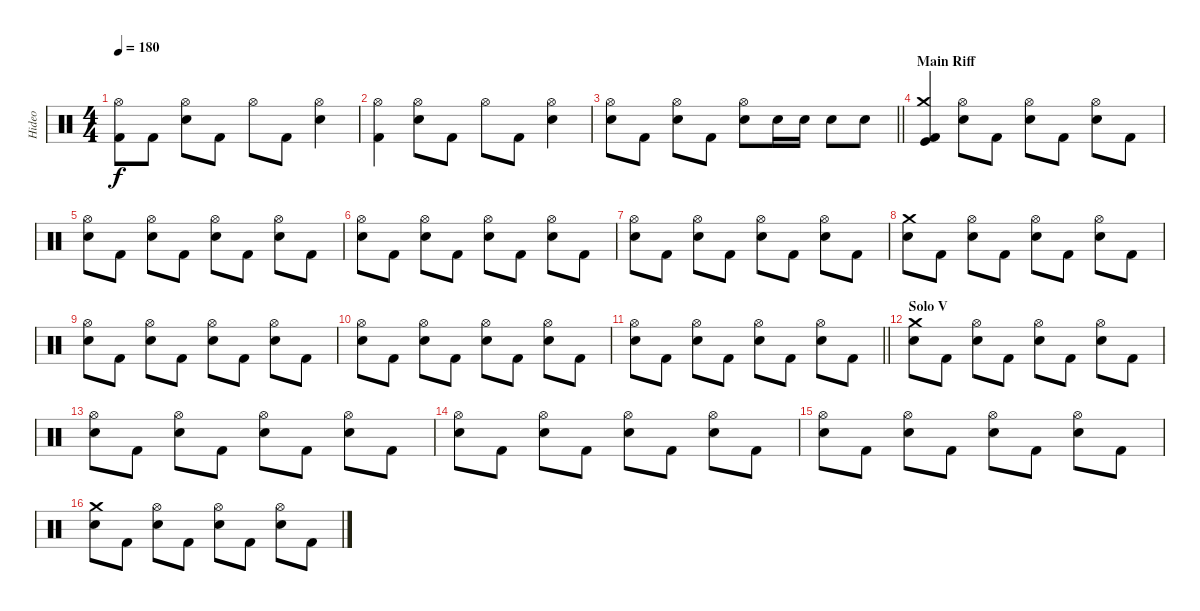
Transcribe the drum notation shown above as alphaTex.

\track ("Hideo" "Hideo") {instrument percussion}
\staff {score}
\articulation defaults
\ts (4 4)
\tempo 180
\clef neutral
\ks c
("Hi-Hat (open)" "Kick (hit) 2").8{dy f} "Kick (hit) 2".8 ("Hi-Hat (open)" "Electric Snare (hit)").8 "Kick (hit) 2".8 "Hi-Hat (open)".8 "Kick (hit) 2".8 ("Hi-Hat (open)" "Electric Snare (hit)").4 |
("Hi-Hat (open)" "Kick (hit) 2").4 ("Hi-Hat (open)" "Electric Snare (hit)").8 "Kick (hit) 2".8 "Hi-Hat (open)".8 "Kick (hit) 2".8 ("Hi-Hat (open)" "Electric Snare (hit)").4 |
\barLineRight lightlight
("Hi-Hat (open)" "Electric Snare (hit)").8 "Kick (hit) 2".8 ("Hi-Hat (open)" "Electric Snare (hit)").8 "Kick (hit) 2".8 ("Hi-Hat (open)" "Electric Snare (hit)").8 "Electric Snare (hit)".16 "Electric Snare (hit)".16 "Electric Snare (hit)".8 "Electric Snare (hit)".8 |
\section ("" "Main Riff")
("Crash medium (hit)" "Kick (hit) 2" "Kick (hit)").4 ("Hi-Hat (open)" "Electric Snare (hit)").8 "Kick (hit) 2".8 ("Hi-Hat (open)" "Electric Snare (hit)").8 "Kick (hit) 2".8 ("Hi-Hat (open)" "Electric Snare (hit)").8 "Kick (hit) 2".8 |
("Hi-Hat (open)" "Electric Snare (hit)").8 "Kick (hit) 2".8 ("Hi-Hat (open)" "Electric Snare (hit)").8 "Kick (hit) 2".8 ("Hi-Hat (open)" "Electric Snare (hit)").8 "Kick (hit) 2".8 ("Hi-Hat (open)" "Electric Snare (hit)").8 "Kick (hit) 2".8 |
("Hi-Hat (open)" "Electric Snare (hit)").8 "Kick (hit) 2".8 ("Hi-Hat (open)" "Electric Snare (hit)").8 "Kick (hit) 2".8 ("Hi-Hat (open)" "Electric Snare (hit)").8 "Kick (hit) 2".8 ("Hi-Hat (open)" "Electric Snare (hit)").8 "Kick (hit) 2".8 |
("Hi-Hat (open)" "Electric Snare (hit)").8 "Kick (hit) 2".8 ("Hi-Hat (open)" "Electric Snare (hit)").8 "Kick (hit) 2".8 ("Hi-Hat (open)" "Electric Snare (hit)").8 "Kick (hit) 2".8 ("Hi-Hat (open)" "Electric Snare (hit)").8 "Kick (hit) 2".8 |
("Crash medium (hit)" "Electric Snare (hit)").8 "Kick (hit) 2".8 ("Hi-Hat (open)" "Electric Snare (hit)").8 "Kick (hit) 2".8 ("Hi-Hat (open)" "Electric Snare (hit)").8 "Kick (hit) 2".8 ("Hi-Hat (open)" "Electric Snare (hit)").8 "Kick (hit) 2".8 |
("Hi-Hat (open)" "Electric Snare (hit)").8 "Kick (hit) 2".8 ("Hi-Hat (open)" "Electric Snare (hit)").8 "Kick (hit) 2".8 ("Hi-Hat (open)" "Electric Snare (hit)").8 "Kick (hit) 2".8 ("Hi-Hat (open)" "Electric Snare (hit)").8 "Kick (hit) 2".8 |
("Hi-Hat (open)" "Electric Snare (hit)").8 "Kick (hit) 2".8 ("Hi-Hat (open)" "Electric Snare (hit)").8 "Kick (hit) 2".8 ("Hi-Hat (open)" "Electric Snare (hit)").8 "Kick (hit) 2".8 ("Hi-Hat (open)" "Electric Snare (hit)").8 "Kick (hit) 2".8 |
\barLineRight lightlight
("Hi-Hat (open)" "Electric Snare (hit)").8 "Kick (hit) 2".8 ("Hi-Hat (open)" "Electric Snare (hit)").8 "Kick (hit) 2".8 ("Hi-Hat (open)" "Electric Snare (hit)").8 "Kick (hit) 2".8 ("Hi-Hat (open)" "Electric Snare (hit)").8 "Kick (hit) 2".8 |
\section ("" "Solo V")
("Crash medium (hit)" "Electric Snare (hit)").8 "Kick (hit) 2".8 ("Hi-Hat (open)" "Electric Snare (hit)").8 "Kick (hit) 2".8 ("Hi-Hat (open)" "Electric Snare (hit)").8 "Kick (hit) 2".8 ("Hi-Hat (open)" "Electric Snare (hit)").8 "Kick (hit) 2".8 |
("Hi-Hat (open)" "Electric Snare (hit)").8 "Kick (hit) 2".8 ("Hi-Hat (open)" "Electric Snare (hit)").8 "Kick (hit) 2".8 ("Hi-Hat (open)" "Electric Snare (hit)").8 "Kick (hit) 2".8 ("Hi-Hat (open)" "Electric Snare (hit)").8 "Kick (hit) 2".8 |
("Hi-Hat (open)" "Electric Snare (hit)").8 "Kick (hit) 2".8 ("Hi-Hat (open)" "Electric Snare (hit)").8 "Kick (hit) 2".8 ("Hi-Hat (open)" "Electric Snare (hit)").8 "Kick (hit) 2".8 ("Hi-Hat (open)" "Electric Snare (hit)").8 "Kick (hit) 2".8 |
("Hi-Hat (open)" "Electric Snare (hit)").8 "Kick (hit) 2".8 ("Hi-Hat (open)" "Electric Snare (hit)").8 "Kick (hit) 2".8 ("Hi-Hat (open)" "Electric Snare (hit)").8 "Kick (hit) 2".8 ("Hi-Hat (open)" "Electric Snare (hit)").8 "Kick (hit) 2".8 |
("Crash medium (hit)" "Electric Snare (hit)").8 "Kick (hit) 2".8 ("Hi-Hat (open)" "Electric Snare (hit)").8 "Kick (hit) 2".8 ("Hi-Hat (open)" "Electric Snare (hit)").8 "Kick (hit) 2".8 ("Hi-Hat (open)" "Electric Snare (hit)").8 "Kick (hit) 2".8
